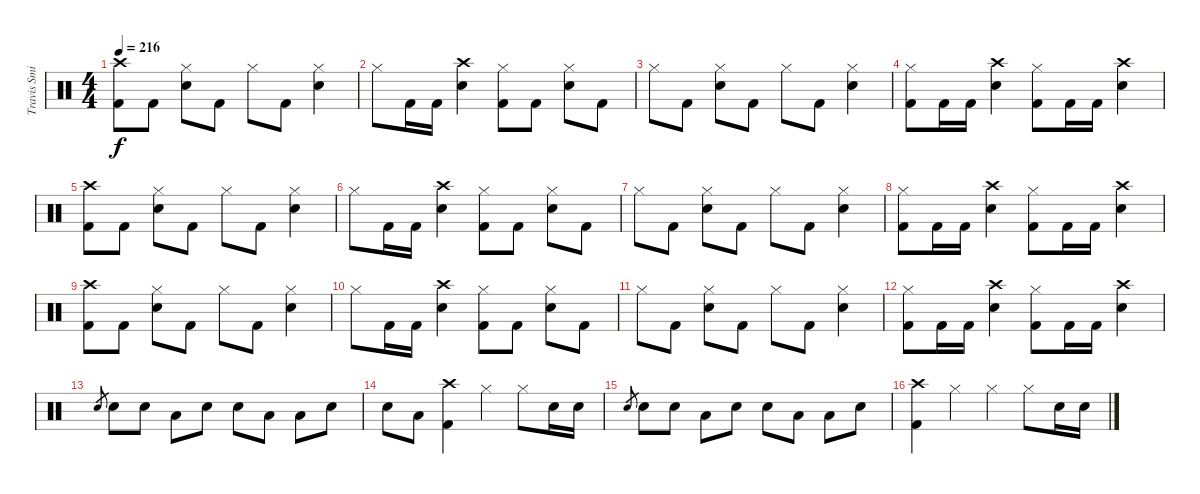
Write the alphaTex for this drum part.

\track ("Travis Smith (Drums)" "Travis Smi") {instrument percussion}
\staff {score}
\articulation defaults
\ts (4 4)
\tempo 216
\clef neutral
\ks c
("Crash high (hit)" "Kick (hit) 2").8{dy f} "Kick (hit) 2".8 ("Hi-Hat (closed)" "Electric Snare (hit)").8 "Kick (hit) 2".8 "Hi-Hat (closed)".8 "Kick (hit) 2".8 ("Hi-Hat (closed)" "Electric Snare (hit)").4 |
"Hi-Hat (closed)".8 "Kick (hit) 2".16 "Kick (hit) 2".16 ("Crash high (hit)" "Electric Snare (hit)").4 ("Hi-Hat (closed)" "Kick (hit) 2").8 "Kick (hit) 2".8 ("Hi-Hat (closed)" "Electric Snare (hit)").8 "Kick (hit) 2".8 |
"Hi-Hat (closed)".8 "Kick (hit) 2".8 ("Hi-Hat (closed)" "Electric Snare (hit)").8 "Kick (hit) 2".8 "Hi-Hat (closed)".8 "Kick (hit) 2".8 ("Hi-Hat (closed)" "Electric Snare (hit)").4 |
("Hi-Hat (closed)" "Kick (hit) 2").8 "Kick (hit) 2".16 "Kick (hit) 2".16 ("Crash high (hit)" "Electric Snare (hit)").4 ("Hi-Hat (closed)" "Kick (hit) 2").8 "Kick (hit) 2".16 "Kick (hit) 2".16 ("Crash high (hit)" "Electric Snare (hit)").4 |
("Crash high (hit)" "Kick (hit) 2").8 "Kick (hit) 2".8 ("Hi-Hat (closed)" "Electric Snare (hit)").8 "Kick (hit) 2".8 "Hi-Hat (closed)".8 "Kick (hit) 2".8 ("Hi-Hat (closed)" "Electric Snare (hit)").4 |
"Hi-Hat (closed)".8 "Kick (hit) 2".16 "Kick (hit) 2".16 ("Crash high (hit)" "Electric Snare (hit)").4 ("Hi-Hat (closed)" "Kick (hit) 2").8 "Kick (hit) 2".8 ("Hi-Hat (closed)" "Electric Snare (hit)").8 "Kick (hit) 2".8 |
"Hi-Hat (closed)".8 "Kick (hit) 2".8 ("Hi-Hat (closed)" "Electric Snare (hit)").8 "Kick (hit) 2".8 "Hi-Hat (closed)".8 "Kick (hit) 2".8 ("Hi-Hat (closed)" "Electric Snare (hit)").4 |
("Hi-Hat (closed)" "Kick (hit) 2").8 "Kick (hit) 2".16 "Kick (hit) 2".16 ("Crash high (hit)" "Electric Snare (hit)").4 ("Hi-Hat (closed)" "Kick (hit) 2").8 "Kick (hit) 2".16 "Kick (hit) 2".16 ("Crash high (hit)" "Electric Snare (hit)").4 |
("Crash high (hit)" "Kick (hit) 2").8 "Kick (hit) 2".8 ("Hi-Hat (closed)" "Electric Snare (hit)").8 "Kick (hit) 2".8 "Hi-Hat (closed)".8 "Kick (hit) 2".8 ("Hi-Hat (closed)" "Electric Snare (hit)").4 |
"Hi-Hat (closed)".8 "Kick (hit) 2".16 "Kick (hit) 2".16 ("Crash high (hit)" "Electric Snare (hit)").4 ("Hi-Hat (closed)" "Kick (hit) 2").8 "Kick (hit) 2".8 ("Hi-Hat (closed)" "Electric Snare (hit)").8 "Kick (hit) 2".8 |
"Hi-Hat (closed)".8 "Kick (hit) 2".8 ("Hi-Hat (closed)" "Electric Snare (hit)").8 "Kick (hit) 2".8 "Hi-Hat (closed)".8 "Kick (hit) 2".8 ("Hi-Hat (closed)" "Electric Snare (hit)").4 |
("Hi-Hat (closed)" "Kick (hit) 2").8 "Kick (hit) 2".16 "Kick (hit) 2".16 ("Crash high (hit)" "Electric Snare (hit)").4 ("Hi-Hat (closed)" "Kick (hit) 2").8 "Kick (hit) 2".16 "Kick (hit) 2".16 ("Crash high (hit)" "Electric Snare (hit)").4 |
"Electric Snare (hit)".8{gr} "Electric Snare (hit)".8 "Electric Snare (hit)".8 "Low Floor Tom (hit)".8 "Electric Snare (hit)".8 "Electric Snare (hit)".8 "Low Floor Tom (hit)".8 "Low Floor Tom (hit)".8 "Electric Snare (hit)".8 |
"Electric Snare (hit)".8 "Low Floor Tom (hit)".8 ("Crash high (hit)" "Kick (hit) 2").4 "Hi-Hat (closed)".4 "Hi-Hat (closed)".8 "Electric Snare (hit)".16 "Electric Snare (hit)".16 |
"Electric Snare (hit)".8{gr} "Electric Snare (hit)".8 "Electric Snare (hit)".8 "Low Floor Tom (hit)".8 "Electric Snare (hit)".8 "Electric Snare (hit)".8 "Low Floor Tom (hit)".8 "Low Floor Tom (hit)".8 "Electric Snare (hit)".8 |
("Crash high (hit)" "Kick (hit) 2").4 "Hi-Hat (closed)".4 "Hi-Hat (closed)".4 "Hi-Hat (closed)".8 "Electric Snare (hit)".16 "Electric Snare (hit)".16
